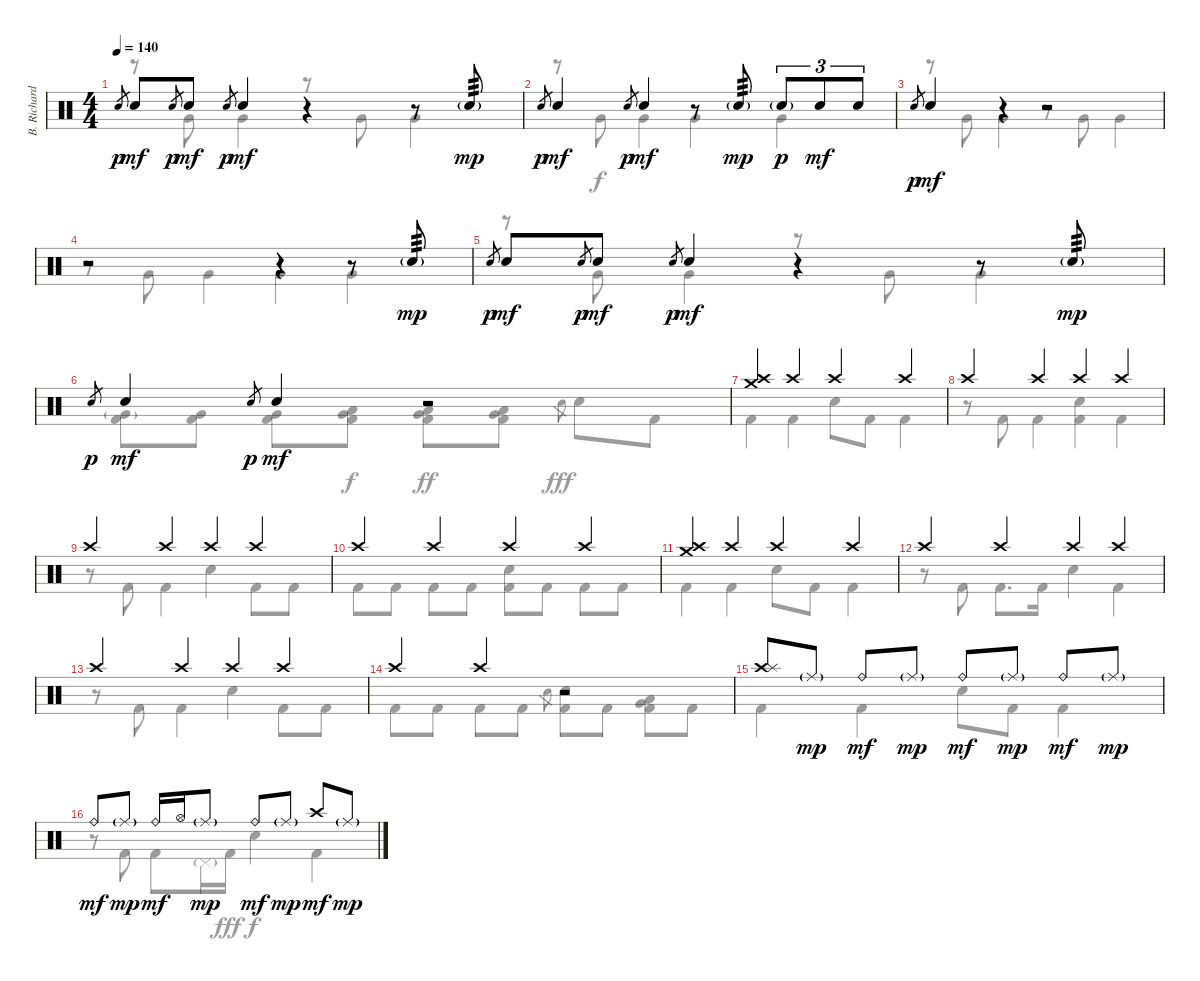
\track ("B. Richardson Drums" "B. Richard") {instrument percussion}
\staff {score}
\articulation defaults
\voice
\ts (4 4)
\tempo 140
\clef neutral
\ks c "Snare (hit) 2".8{gr dy p} "Snare (hit) 2".8{dy mf} "Snare (hit) 2".8{gr dy p} "Snare (hit) 2".8{dy mf} "Snare (hit) 2".8{gr dy p} "Snare (hit) 2".4{dy mf}
r.4 r.8 "Snare (hit) 2"{g}.8{tp 3 dy mp} |
"Snare (hit) 2".8{gr dy p} "Snare (hit) 2".4{dy mf} "Snare (hit) 2".8{gr dy p} "Snare (hit) 2".4{dy mf} r.8 "Snare (hit) 2"{g}.8{tp 3 dy mp} "Snare (hit) 2"{g}.8{tu (3 2) dy p} "Snare (hit) 2".8{tu (3 2) dy mf} "Snare (hit) 2".8{tu (3 2)} |
"Snare (hit) 2".8{gr dy p} "Snare (hit) 2".4{dy mf} r.4 r.2 |
r.2 r.4 r.8 "Snare (hit) 2"{g}.8{tp 3 dy mp} |
"Snare (hit) 2".8{gr dy p} "Snare (hit) 2".8{dy mf} "Snare (hit) 2".8{gr dy p} "Snare (hit) 2".8{dy mf} "Snare (hit) 2".8{gr dy p} "Snare (hit) 2".4{dy mf} r.4 r.8 "Snare (hit) 2"{g}.8{tp 3 dy mp} |
"Snare (hit) 2".8{gr dy p} "Snare (hit) 2".4{dy mf} "Snare (hit) 2".8{gr dy p} "Snare (hit) 2".4{dy mf} r.2 |
("Crash high (hit)" "Crash medium (hit)").4 "Crash high (hit)".4 "Crash high (hit)".4 "Crash high (hit)".4 |
"Crash high (hit)".4 "Crash high (hit)".4 "Crash high (hit)".4 "Crash high (hit)".4 |
"Crash high (hit)".4 "Crash high (hit)".4 "Crash high (hit)".4 "Crash high (hit)".4 |
"Crash high (hit)".4 "Crash high (hit)".4 "Crash high (hit)".4 "Crash high (hit)".4 |
("Crash high (hit)" "Crash medium (hit)").4 "Crash high (hit)".4 "Crash high (hit)".4 "Crash high (hit)".4 |
"Crash high (hit)".4 "Crash high (hit)".4 "Crash high (hit)".4 "Crash high (hit)".4 |
"Crash high (hit)".4 "Crash high (hit)".4 "Crash high (hit)".4 "Crash high (hit)".4 |
"Crash high (hit)".4 "Crash high (hit)".4 r.2 |
("Crash high (hit)" "Splash (hit)").8 "Ride (middle)"{g}.8{dy mp} "Ride (bell)".8{dy mf} "Ride (middle)"{g}.8{dy mp} "Ride (bell)".8{dy mf} "Ride (middle)"{g}.8{dy mp} "Ride (bell)".8{dy mf} "Ride (middle)"{g}.8{dy mp} |
"Ride (bell)".8{dy mf} "Ride (middle)"{g}.8{dy mp} "Ride (bell)".16{dy mf} "Hi-Hat (open)".16 "Ride (middle)"{g}.8{dy mp} "Ride (bell)".8{dy mf} "Ride (middle)"{g}.8{dy mp} "Crash high (hit)".8{dy mf} "Ride (middle)"{g}.8{dy mp}
\voice
\clef neutral
\ottava regular
\simile none
\ks c
r.8{dy mf} "Very Low Tom (hit)".8 "Very Low Tom (hit)".4 r.8 "Very Low Tom (hit)".8 "Very Low Tom (hit)".4 |
r.8 "Very Low Tom (hit)".8{dy f} "Very Low Tom (hit)".4 "Very Low Tom (hit)".4 "Very Low Tom (hit)".4 |
r.8 "Very Low Tom (hit)".8 "Very Low Tom (hit)".4 r.8 "Very Low Tom (hit)".8 "Very Low Tom (hit)".4 |
r.8 "Very Low Tom (hit)".8 "Very Low Tom (hit)".4 "Very Low Tom (hit)".4 "Very Low Tom (hit)".4 |
r.8 "Very Low Tom (hit)".8 "Very Low Tom (hit)".4 r.8 "Very Low Tom (hit)".8 "Very Low Tom (hit)".4 |
("Very Low Tom (hit)"{g} "Kick (hit) 2").8{dy mf} ("Very Low Tom (hit)" "Kick (hit) 2").8 ("Very Low Tom (hit)" "Kick (hit) 2").8 ("Low Tom (hit)" "Very Low Tom (hit)" "Kick (hit) 2").8{dy f} ("Low Tom (hit)" "Very Low Tom (hit)" "Kick (hit) 2").8{dy ff} ("Low Tom (hit)" "Very Low Tom (hit)" "Kick (hit) 2").8 "Electric Snare (hit)".8{gr dy fff} "Electric Snare (hit)".8 "Kick (hit) 2".8 |
"Kick (hit) 2".4 "Kick (hit) 2".4 "Electric Snare (hit)".8 "Kick (hit) 2".8 "Kick (hit) 2".4 |
r.8 "Kick (hit) 2".8 "Kick (hit) 2".4 ("Electric Snare (hit)" "Kick (hit) 2").4 "Kick (hit) 2".4 |
r.8 "Kick (hit) 2".8 "Kick (hit) 2".4 "Electric Snare (hit)".4 "Kick (hit) 2".8 "Kick (hit) 2".8 |
"Kick (hit) 2".8 "Kick (hit) 2".8 "Kick (hit) 2".8 "Kick (hit) 2".8 ("Electric Snare (hit)" "Kick (hit) 2").8 "Kick (hit) 2".8 "Kick (hit) 2".8 "Kick (hit) 2".8 |
"Kick (hit) 2".4 "Kick (hit) 2".4 "Electric Snare (hit)".8 "Kick (hit) 2".8 "Kick (hit) 2".4 |
r.8 "Kick (hit) 2".8 "Kick (hit) 2".8{d} "Kick (hit) 2".16 "Electric Snare (hit)".4 "Kick (hit) 2".4 |
r.8 "Kick (hit) 2".8 "Kick (hit) 2".4 "Electric Snare (hit)".4 "Kick (hit) 2".8 "Kick (hit) 2".8 |
"Kick (hit) 2".8 "Kick (hit) 2".8 "Kick (hit) 2".8 "Kick (hit) 2".8 "Electric Snare (hit)".8{gr} ("Electric Snare (hit)" "Kick (hit) 2").8 "Kick (hit) 2".8 ("Low Tom (hit)" "Very Low Tom (hit)" "Kick (hit) 2").8 "Kick (hit) 2".8 |
"Kick (hit) 2".4 "Kick (hit) 2".4 "Electric Snare (hit)".8 "Kick (hit) 2".8 "Kick (hit) 2".4 |
r.8 "Kick (hit) 2".8 "Kick (hit) 2".8 "Pedal Hi-Hat (hit)"{g}.16{dy mp} "Kick (hit) 2".16{dy fff} "Electric Snare (hit)".4{dy f} "Kick (hit) 2".4
